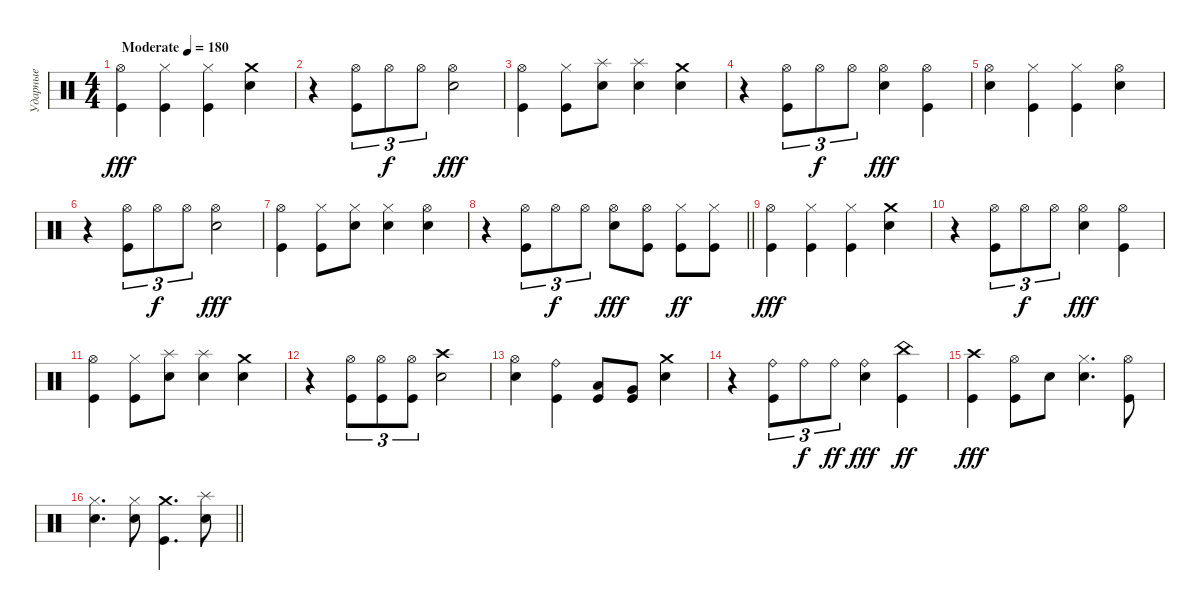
\track ("Ударные" "Ударные") {instrument percussion}
\staff {score}
\articulation defaults
\ts (4 4)
\tempo (180 "Moderate")
\clef neutral
\ks c
("Hi-Hat (open)" "Kick (hit)").4{dy fff} ("Hi-Hat (closed)" "Kick (hit)").4 ("Hi-Hat (closed)" "Kick (hit)").4 ("Crash medium (hit)" "Electric Snare (hit)").4 |
r.4 ("Hi-Hat (open)" "Kick (hit)").8{tu (3 2)} "Hi-Hat (open)".8{tu (3 2) dy f} "Hi-Hat (open)".8{tu (3 2)} ("Hi-Hat (open)" "Electric Snare (hit)").2{dy fff} |
("Hi-Hat (open)" "Kick (hit)").4 ("Hi-Hat (closed)" "Kick (hit)").8 ("Splash (hit)" "Electric Snare (hit)").8 ("Splash (hit)" "Electric Snare (hit)").4 ("Crash medium (hit)" "Electric Snare (hit)").4 |
r.4 ("Hi-Hat (open)" "Kick (hit)").8{tu (3 2)} "Hi-Hat (open)".8{tu (3 2) dy f} "Hi-Hat (open)".8{tu (3 2)} ("Hi-Hat (open)" "Electric Snare (hit)").4{dy fff} ("Hi-Hat (open)" "Kick (hit)").4 |
("Hi-Hat (open)" "Electric Snare (hit)").4 ("Hi-Hat (closed)" "Kick (hit)").4 ("Hi-Hat (closed)" "Kick (hit)").4 ("Hi-Hat (open)" "Electric Snare (hit)").4 |
r.4 ("Hi-Hat (open)" "Kick (hit)").8{tu (3 2)} "Hi-Hat (open)".8{tu (3 2) dy f} "Hi-Hat (open)".8{tu (3 2)} ("Hi-Hat (open)" "Electric Snare (hit)").2{dy fff} |
("Hi-Hat (open)" "Kick (hit)").4 ("Hi-Hat (closed)" "Kick (hit)").8 ("Hi-Hat (closed)" "Electric Snare (hit)").8 ("Hi-Hat (closed)" "Electric Snare (hit)").4 ("Hi-Hat (open)" "Electric Snare (hit)").4 |
\barLineRight lightlight
r.4 ("Hi-Hat (open)" "Kick (hit)").8{tu (3 2)} "Hi-Hat (open)".8{tu (3 2) dy f} "Hi-Hat (open)".8{tu (3 2)} ("Hi-Hat (open)" "Electric Snare (hit)").8{dy fff} ("Hi-Hat (open)" "Kick (hit)").8 ("Hi-Hat (closed)" "Kick (hit)").8{dy ff} ("Hi-Hat (closed)" "Kick (hit)").8 |
("Hi-Hat (open)" "Kick (hit)").4{dy fff} ("Hi-Hat (closed)" "Kick (hit)").4 ("Hi-Hat (closed)" "Kick (hit)").4 ("Crash medium (hit)" "Electric Snare (hit)").4 |
r.4 ("Hi-Hat (open)" "Kick (hit)").8{tu (3 2)} "Hi-Hat (open)".8{tu (3 2) dy f} "Hi-Hat (open)".8{tu (3 2)} ("Hi-Hat (open)" "Electric Snare (hit)").4{dy fff} ("Hi-Hat (open)" "Kick (hit)").4 |
("Hi-Hat (open)" "Kick (hit)").4 ("Hi-Hat (closed)" "Kick (hit)").8 ("Splash (hit)" "Electric Snare (hit)").8 ("Splash (hit)" "Electric Snare (hit)").4 ("Crash medium (hit)" "Electric Snare (hit)").4 |
r.4 ("Hi-Hat (open)" "Kick (hit)").8{tu (3 2)} ("Hi-Hat (open)" "Kick (hit)").8{tu (3 2)} ("Hi-Hat (open)" "Kick (hit)").8{tu (3 2)} ("Crash high (hit)" "Electric Snare (hit)").2 |
("Hi-Hat (open)" "Electric Snare (hit)").4 ("Ride (bell)" "Kick (hit)").4 ("Low Tom (hit)" "Kick (hit)").8 ("Very Low Tom (hit)" "Kick (hit)").8 ("Crash medium (hit)" "Electric Snare (hit)").4 |
r.4 ("Ride (bell)" "Kick (hit)").8{tu (3 2)} "Ride (bell)".8{tu (3 2) dy f} "Ride (bell)".8{tu (3 2) dy ff} ("Ride (bell)" "Electric Snare (hit)").4{dy fff} ("China (hit)" "Kick (hit)").4{dy ff} |
("Crash high (hit)" "Kick (hit)").4{dy fff} ("Hi-Hat (open)" "Kick (hit)").8 "Electric Snare (hit)".8 ("Hi-Hat (closed)" "Electric Snare (hit)").4{d} ("Hi-Hat (open)" "Kick (hit)").8 |
\barLineRight lightlight
("Hi-Hat (closed)" "Electric Snare (hit)").4{d} ("Hi-Hat (closed)" "Electric Snare (hit)").8 ("Crash medium (hit)" "Kick (hit)").4{d} ("Splash (hit)" "Electric Snare (hit)").8
